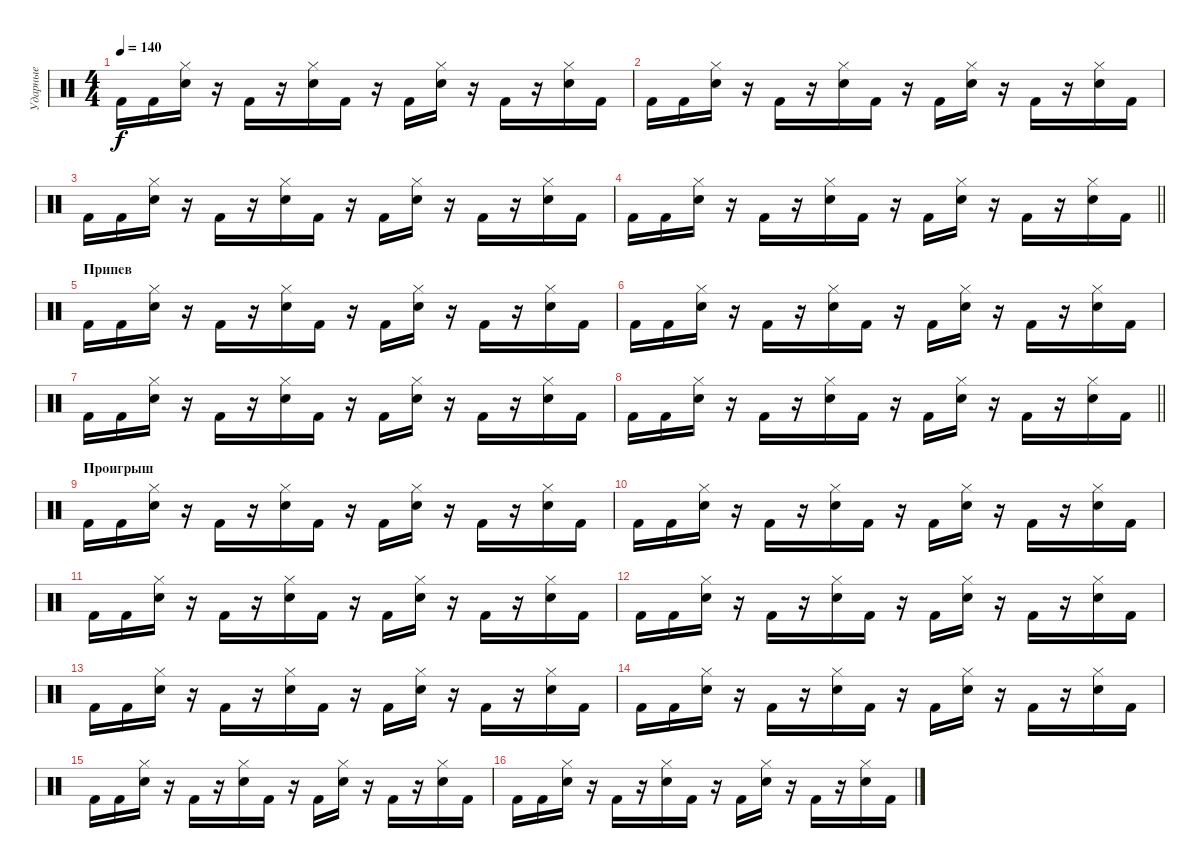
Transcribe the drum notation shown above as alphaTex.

\track ("Ударные" "Ударные") {instrument percussion}
\staff {score}
\articulation defaults
\ts (4 4)
\tempo 140
\clef neutral
\ks c "Kick (hit) 2".16{dy f} "Kick (hit) 2".16
("Snare (hit) 2" "Hi-Hat (closed)").16 r.16 "Kick (hit) 2".16 r.16 ("Snare (hit) 2" "Hi-Hat (closed)").16 "Kick (hit) 2".16 r.16 "Kick (hit) 2".16 ("Snare (hit) 2" "Hi-Hat (closed)").16 r.16 "Kick (hit) 2".16 r.16 ("Snare (hit) 2" "Hi-Hat (closed)").16 "Kick (hit) 2".16 |
"Kick (hit) 2".16 "Kick (hit) 2".16 ("Snare (hit) 2" "Hi-Hat (closed)").16 r.16 "Kick (hit) 2".16 r.16 ("Snare (hit) 2" "Hi-Hat (closed)").16 "Kick (hit) 2".16 r.16 "Kick (hit) 2".16 ("Snare (hit) 2" "Hi-Hat (closed)").16 r.16 "Kick (hit) 2".16 r.16 ("Snare (hit) 2" "Hi-Hat (closed)").16 "Kick (hit) 2".16 |
"Kick (hit) 2".16 "Kick (hit) 2".16 ("Snare (hit) 2" "Hi-Hat (closed)").16 r.16 "Kick (hit) 2".16 r.16 ("Snare (hit) 2" "Hi-Hat (closed)").16 "Kick (hit) 2".16 r.16 "Kick (hit) 2".16 ("Snare (hit) 2" "Hi-Hat (closed)").16 r.16 "Kick (hit) 2".16 r.16 ("Snare (hit) 2" "Hi-Hat (closed)").16 "Kick (hit) 2".16 |
\barLineRight lightlight "Kick (hit) 2".16 "Kick (hit) 2".16
("Snare (hit) 2" "Hi-Hat (closed)").16 r.16 "Kick (hit) 2".16 r.16 ("Snare (hit) 2" "Hi-Hat (closed)").16 "Kick (hit) 2".16 r.16 "Kick (hit) 2".16 ("Snare (hit) 2" "Hi-Hat (closed)").16 r.16 "Kick (hit) 2".16 r.16 ("Snare (hit) 2" "Hi-Hat (closed)").16 "Kick (hit) 2".16 |
\section ("" "Припев")
"Kick (hit) 2".16 "Kick (hit) 2".16 ("Snare (hit) 2" "Hi-Hat (closed)").16 r.16 "Kick (hit) 2".16 r.16 ("Snare (hit) 2" "Hi-Hat (closed)").16 "Kick (hit) 2".16 r.16 "Kick (hit) 2".16 ("Snare (hit) 2" "Hi-Hat (closed)").16 r.16 "Kick (hit) 2".16 r.16 ("Snare (hit) 2" "Hi-Hat (closed)").16 "Kick (hit) 2".16 |
"Kick (hit) 2".16 "Kick (hit) 2".16 ("Snare (hit) 2" "Hi-Hat (closed)").16 r.16 "Kick (hit) 2".16 r.16 ("Snare (hit) 2" "Hi-Hat (closed)").16 "Kick (hit) 2".16 r.16 "Kick (hit) 2".16 ("Snare (hit) 2" "Hi-Hat (closed)").16 r.16 "Kick (hit) 2".16 r.16 ("Snare (hit) 2" "Hi-Hat (closed)").16 "Kick (hit) 2".16 |
"Kick (hit) 2".16 "Kick (hit) 2".16 ("Snare (hit) 2" "Hi-Hat (closed)").16 r.16 "Kick (hit) 2".16 r.16 ("Snare (hit) 2" "Hi-Hat (closed)").16 "Kick (hit) 2".16 r.16 "Kick (hit) 2".16 ("Snare (hit) 2" "Hi-Hat (closed)").16 r.16 "Kick (hit) 2".16 r.16 ("Snare (hit) 2" "Hi-Hat (closed)").16 "Kick (hit) 2".16 |
\barLineRight lightlight "Kick (hit) 2".16{volume 14} "Kick (hit) 2".16
("Snare (hit) 2" "Hi-Hat (closed)").16 r.16 "Kick (hit) 2".16 r.16 ("Snare (hit) 2" "Hi-Hat (closed)").16 "Kick (hit) 2".16 r.16 "Kick (hit) 2".16 ("Snare (hit) 2" "Hi-Hat (closed)").16 r.16 "Kick (hit) 2".16 r.16 ("Snare (hit) 2" "Hi-Hat (closed)").16 "Kick (hit) 2".16 |
\section ("" "Проигрыш")
"Kick (hit) 2".16{volume 16} "Kick (hit) 2".16 ("Snare (hit) 2" "Hi-Hat (closed)").16 r.16 "Kick (hit) 2".16 r.16 ("Snare (hit) 2" "Hi-Hat (closed)").16 "Kick (hit) 2".16 r.16 "Kick (hit) 2".16 ("Snare (hit) 2" "Hi-Hat (closed)").16 r.16 "Kick (hit) 2".16 r.16 ("Snare (hit) 2" "Hi-Hat (closed)").16 "Kick (hit) 2".16 |
"Kick (hit) 2".16 "Kick (hit) 2".16 ("Snare (hit) 2" "Hi-Hat (closed)").16 r.16 "Kick (hit) 2".16 r.16 ("Snare (hit) 2" "Hi-Hat (closed)").16 "Kick (hit) 2".16 r.16 "Kick (hit) 2".16 ("Snare (hit) 2" "Hi-Hat (closed)").16 r.16 "Kick (hit) 2".16 r.16 ("Snare (hit) 2" "Hi-Hat (closed)").16 "Kick (hit) 2".16 |
"Kick (hit) 2".16 "Kick (hit) 2".16 ("Snare (hit) 2" "Hi-Hat (closed)").16 r.16 "Kick (hit) 2".16 r.16 ("Snare (hit) 2" "Hi-Hat (closed)").16 "Kick (hit) 2".16 r.16 "Kick (hit) 2".16 ("Snare (hit) 2" "Hi-Hat (closed)").16 r.16 "Kick (hit) 2".16 r.16 ("Snare (hit) 2" "Hi-Hat (closed)").16 "Kick (hit) 2".16 |
"Kick (hit) 2".16 "Kick (hit) 2".16 ("Snare (hit) 2" "Hi-Hat (closed)").16 r.16 "Kick (hit) 2".16 r.16 ("Snare (hit) 2" "Hi-Hat (closed)").16 "Kick (hit) 2".16 r.16 "Kick (hit) 2".16 ("Snare (hit) 2" "Hi-Hat (closed)").16 r.16 "Kick (hit) 2".16 r.16 ("Snare (hit) 2" "Hi-Hat (closed)").16 "Kick (hit) 2".16 |
"Kick (hit) 2".16 "Kick (hit) 2".16 ("Snare (hit) 2" "Hi-Hat (closed)").16 r.16 "Kick (hit) 2".16 r.16 ("Snare (hit) 2" "Hi-Hat (closed)").16 "Kick (hit) 2".16 r.16 "Kick (hit) 2".16 ("Snare (hit) 2" "Hi-Hat (closed)").16 r.16 "Kick (hit) 2".16 r.16 ("Snare (hit) 2" "Hi-Hat (closed)").16 "Kick (hit) 2".16 |
"Kick (hit) 2".16 "Kick (hit) 2".16 ("Snare (hit) 2" "Hi-Hat (closed)").16 r.16 "Kick (hit) 2".16 r.16 ("Snare (hit) 2" "Hi-Hat (closed)").16 "Kick (hit) 2".16 r.16 "Kick (hit) 2".16 ("Snare (hit) 2" "Hi-Hat (closed)").16 r.16 "Kick (hit) 2".16 r.16 ("Snare (hit) 2" "Hi-Hat (closed)").16 "Kick (hit) 2".16 |
"Kick (hit) 2".16 "Kick (hit) 2".16 ("Snare (hit) 2" "Hi-Hat (closed)").16 r.16 "Kick (hit) 2".16 r.16 ("Snare (hit) 2" "Hi-Hat (closed)").16 "Kick (hit) 2".16 r.16 "Kick (hit) 2".16 ("Snare (hit) 2" "Hi-Hat (closed)").16 r.16 "Kick (hit) 2".16 r.16 ("Snare (hit) 2" "Hi-Hat (closed)").16 "Kick (hit) 2".16 |
"Kick (hit) 2".16 "Kick (hit) 2".16 ("Snare (hit) 2" "Hi-Hat (closed)").16 r.16 "Kick (hit) 2".16 r.16 ("Snare (hit) 2" "Hi-Hat (closed)").16 "Kick (hit) 2".16 r.16 "Kick (hit) 2".16 ("Snare (hit) 2" "Hi-Hat (closed)").16 r.16 "Kick (hit) 2".16 r.16 ("Snare (hit) 2" "Hi-Hat (closed)").16 "Kick (hit) 2".16
